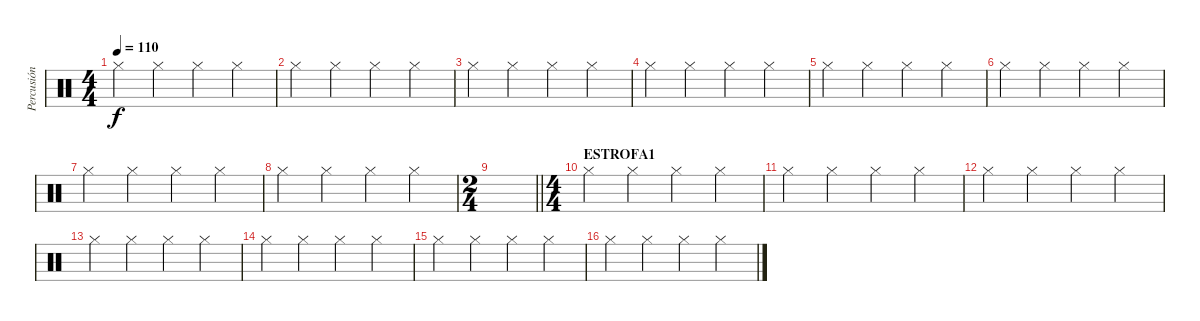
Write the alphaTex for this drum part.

\track ("Percusión" "Percusión") {instrument percussion}
\staff {score}
\articulation defaults
\ts (4 4)
\tempo 110
\clef neutral
\ks c "Hi-Hat (closed)".4{dy f} "Hi-Hat (closed)".4 "Hi-Hat (closed)".4 "Hi-Hat (closed)".4
|
"Hi-Hat (closed)".4 "Hi-Hat (closed)".4 "Hi-Hat (closed)".4 "Hi-Hat (closed)".4 |
"Hi-Hat (closed)".4 "Hi-Hat (closed)".4 "Hi-Hat (closed)".4 "Hi-Hat (closed)".4 |
"Hi-Hat (closed)".4 "Hi-Hat (closed)".4 "Hi-Hat (closed)".4 "Hi-Hat (closed)".4 |
"Hi-Hat (closed)".4 "Hi-Hat (closed)".4 "Hi-Hat (closed)".4 "Hi-Hat (closed)".4 |
"Hi-Hat (closed)".4 "Hi-Hat (closed)".4 "Hi-Hat (closed)".4 "Hi-Hat (closed)".4 |
"Hi-Hat (closed)".4 "Hi-Hat (closed)".4 "Hi-Hat (closed)".4 "Hi-Hat (closed)".4 |
"Hi-Hat (closed)".4 "Hi-Hat (closed)".4 "Hi-Hat (closed)".4 "Hi-Hat (closed)".4 |
\ts (2 4)
\barLineRight lightlight
|
\ts (4 4)
\section ("" "ESTROFA1")
"Hi-Hat (closed)".4 "Hi-Hat (closed)".4 "Hi-Hat (closed)".4 "Hi-Hat (closed)".4 |
"Hi-Hat (closed)".4 "Hi-Hat (closed)".4 "Hi-Hat (closed)".4 "Hi-Hat (closed)".4 |
"Hi-Hat (closed)".4 "Hi-Hat (closed)".4 "Hi-Hat (closed)".4 "Hi-Hat (closed)".4 |
"Hi-Hat (closed)".4 "Hi-Hat (closed)".4 "Hi-Hat (closed)".4 "Hi-Hat (closed)".4 |
"Hi-Hat (closed)".4 "Hi-Hat (closed)".4 "Hi-Hat (closed)".4 "Hi-Hat (closed)".4 |
"Hi-Hat (closed)".4 "Hi-Hat (closed)".4 "Hi-Hat (closed)".4 "Hi-Hat (closed)".4 |
"Hi-Hat (closed)".4 "Hi-Hat (closed)".4 "Hi-Hat (closed)".4 "Hi-Hat (closed)".4
